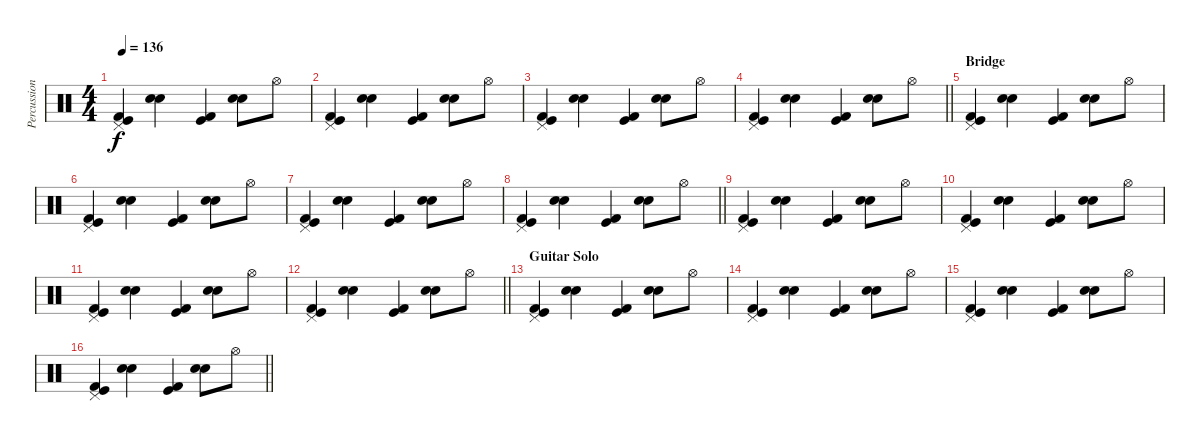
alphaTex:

\track ("Percussion" "Percussion") {instrument percussion}
\staff {score}
\articulation defaults
\ts (4 4)
\tempo 136
\clef neutral
\ks c
("Pedal Hi-Hat (hit)" "Kick (hit)" "Kick (hit) 2").4{dy f} ("Snare (hit) 2" "Electric Snare (hit)").4 ("Kick (hit)" "Kick (hit) 2").4 ("Snare (hit) 2" "Electric Snare (hit)").8 "Hi-Hat (open)".8 |
("Pedal Hi-Hat (hit)" "Kick (hit)" "Kick (hit) 2").4 ("Snare (hit) 2" "Electric Snare (hit)").4 ("Kick (hit)" "Kick (hit) 2").4 ("Snare (hit) 2" "Electric Snare (hit)").8 "Hi-Hat (open)".8 |
("Pedal Hi-Hat (hit)" "Kick (hit)" "Kick (hit) 2").4 ("Snare (hit) 2" "Electric Snare (hit)").4 ("Kick (hit)" "Kick (hit) 2").4 ("Snare (hit) 2" "Electric Snare (hit)").8 "Hi-Hat (open)".8 |
\barLineRight lightlight
("Pedal Hi-Hat (hit)" "Kick (hit)" "Kick (hit) 2").4 ("Snare (hit) 2" "Electric Snare (hit)").4 ("Kick (hit)" "Kick (hit) 2").4 ("Snare (hit) 2" "Electric Snare (hit)").8 "Hi-Hat (open)".8 |
\section ("" "Bridge")
("Pedal Hi-Hat (hit)" "Kick (hit)" "Kick (hit) 2").4 ("Snare (hit) 2" "Electric Snare (hit)").4 ("Kick (hit)" "Kick (hit) 2").4 ("Snare (hit) 2" "Electric Snare (hit)").8 "Hi-Hat (open)".8 |
("Pedal Hi-Hat (hit)" "Kick (hit)" "Kick (hit) 2").4 ("Snare (hit) 2" "Electric Snare (hit)").4 ("Kick (hit)" "Kick (hit) 2").4 ("Snare (hit) 2" "Electric Snare (hit)").8 "Hi-Hat (open)".8 |
("Pedal Hi-Hat (hit)" "Kick (hit)" "Kick (hit) 2").4 ("Snare (hit) 2" "Electric Snare (hit)").4 ("Kick (hit)" "Kick (hit) 2").4 ("Snare (hit) 2" "Electric Snare (hit)").8 "Hi-Hat (open)".8 |
\barLineRight lightlight
("Pedal Hi-Hat (hit)" "Kick (hit)" "Kick (hit) 2").4 ("Snare (hit) 2" "Electric Snare (hit)").4 ("Kick (hit)" "Kick (hit) 2").4 ("Snare (hit) 2" "Electric Snare (hit)").8 "Hi-Hat (open)".8 |
("Pedal Hi-Hat (hit)" "Kick (hit)" "Kick (hit) 2").4 ("Snare (hit) 2" "Electric Snare (hit)").4 ("Kick (hit)" "Kick (hit) 2").4 ("Snare (hit) 2" "Electric Snare (hit)").8 "Hi-Hat (open)".8 |
("Pedal Hi-Hat (hit)" "Kick (hit)" "Kick (hit) 2").4 ("Snare (hit) 2" "Electric Snare (hit)").4 ("Kick (hit)" "Kick (hit) 2").4 ("Snare (hit) 2" "Electric Snare (hit)").8 "Hi-Hat (open)".8 |
("Pedal Hi-Hat (hit)" "Kick (hit)" "Kick (hit) 2").4 ("Snare (hit) 2" "Electric Snare (hit)").4 ("Kick (hit)" "Kick (hit) 2").4 ("Snare (hit) 2" "Electric Snare (hit)").8 "Hi-Hat (open)".8 |
\barLineRight lightlight
("Pedal Hi-Hat (hit)" "Kick (hit)" "Kick (hit) 2").4 ("Snare (hit) 2" "Electric Snare (hit)").4 ("Kick (hit)" "Kick (hit) 2").4 ("Snare (hit) 2" "Electric Snare (hit)").8 "Hi-Hat (open)".8 |
\section ("" "Guitar Solo")
("Pedal Hi-Hat (hit)" "Kick (hit)" "Kick (hit) 2").4 ("Snare (hit) 2" "Electric Snare (hit)").4 ("Kick (hit)" "Kick (hit) 2").4 ("Snare (hit) 2" "Electric Snare (hit)").8 "Hi-Hat (open)".8 |
("Pedal Hi-Hat (hit)" "Kick (hit)" "Kick (hit) 2").4 ("Snare (hit) 2" "Electric Snare (hit)").4 ("Kick (hit)" "Kick (hit) 2").4 ("Snare (hit) 2" "Electric Snare (hit)").8 "Hi-Hat (open)".8 |
("Pedal Hi-Hat (hit)" "Kick (hit)" "Kick (hit) 2").4 ("Snare (hit) 2" "Electric Snare (hit)").4 ("Kick (hit)" "Kick (hit) 2").4 ("Snare (hit) 2" "Electric Snare (hit)").8 "Hi-Hat (open)".8 |
\barLineRight lightlight
("Pedal Hi-Hat (hit)" "Kick (hit)" "Kick (hit) 2").4 ("Snare (hit) 2" "Electric Snare (hit)").4 ("Kick (hit)" "Kick (hit) 2").4 ("Snare (hit) 2" "Electric Snare (hit)").8 "Hi-Hat (open)".8
